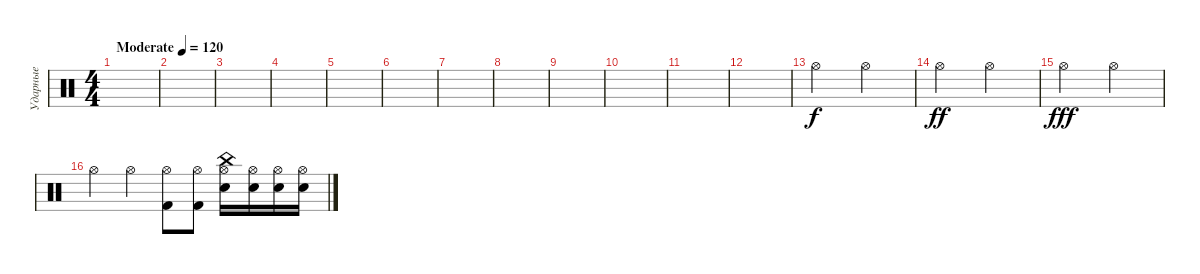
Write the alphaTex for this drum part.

\track ("Ударные" "Ударные") {instrument percussion}
\staff {score}
\articulation defaults
\ts (4 4)
\tempo (120 "Moderate")
\clef neutral
\ks c
|
|
|
|
|
|
|
|
|
|
|
|
"Hi-Hat (open)".2 "Hi-Hat (open)".2 |
"Hi-Hat (open)".2{dy ff} "Hi-Hat (open)".2 |
"Hi-Hat (open)".2{dy fff} "Hi-Hat (open)".2 |
"Hi-Hat (open)".4 "Hi-Hat (open)".4 ("Hi-Hat (open)" "Kick (hit) 2").8 ("Hi-Hat (open)" "Kick (hit) 2").8 ("Hi-Hat (open)" "China (hit)" "Snare (hit) 2").16 ("Hi-Hat (open)" "Snare (hit) 2").16 ("Hi-Hat (open)" "Snare (hit) 2").16 ("Hi-Hat (open)" "Snare (hit) 2").16
